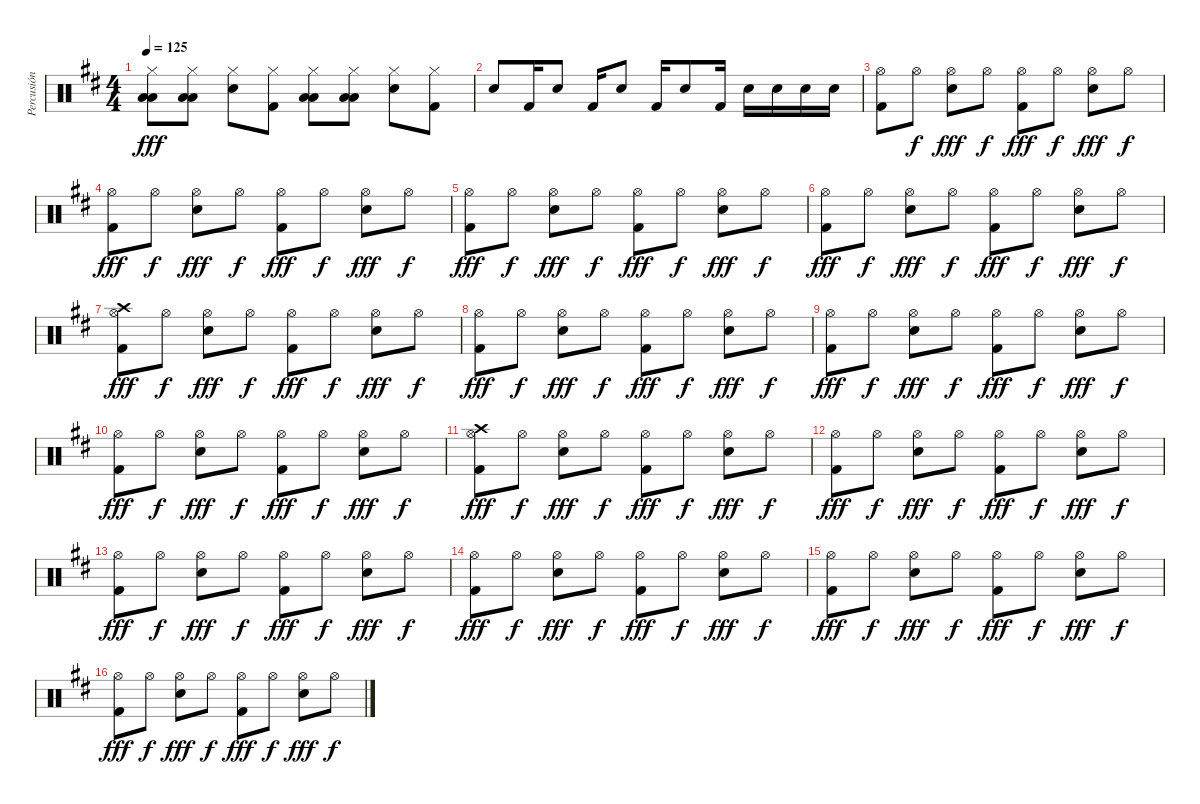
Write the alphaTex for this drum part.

\track ("Percusión" "Percusión") {instrument percussion}
\staff {score}
\articulation defaults
\ts (4 4)
\tempo 125
\clef neutral
\ks d
("Hi-Hat (closed)" "Low Tom (hit)" "Low Tom (hit)").8{dy fff} ("Hi-Hat (closed)" "Low Tom (hit)" "Low Tom (hit)").8 ("Hi-Hat (closed)" "Electric Snare (hit)").8 ("Hi-Hat (closed)" "Kick (hit) 2").8 ("Hi-Hat (closed)" "Low Tom (hit)" "Low Tom (hit)").8 ("Hi-Hat (closed)" "Low Tom (hit)" "Low Tom (hit)").8 ("Hi-Hat (closed)" "Electric Snare (hit)").8 ("Hi-Hat (closed)" "Kick (hit) 2").8 |
"Electric Snare (hit)".8 "Kick (hit) 2".16 "Electric Snare (hit)".8 "Kick (hit) 2".16 "Electric Snare (hit)".8 "Kick (hit) 2".16 "Electric Snare (hit)".8 "Kick (hit) 2".16 "Electric Snare (hit)".16 "Electric Snare (hit)".16 "Electric Snare (hit)".16 "Electric Snare (hit)".16 |
("Hi-Hat (open)" "Kick (hit) 2").8 "Hi-Hat (open)".8{dy f} ("Hi-Hat (open)" "Electric Snare (hit)").8{dy fff} "Hi-Hat (open)".8{dy f} ("Hi-Hat (open)" "Kick (hit) 2").8{dy fff} "Hi-Hat (open)".8{dy f} ("Hi-Hat (open)" "Electric Snare (hit)").8{dy fff} "Hi-Hat (open)".8{dy f} |
("Hi-Hat (open)" "Kick (hit) 2").8{dy fff} "Hi-Hat (open)".8{dy f} ("Hi-Hat (open)" "Electric Snare (hit)").8{dy fff} "Hi-Hat (open)".8{dy f} ("Hi-Hat (open)" "Kick (hit) 2").8{dy fff} "Hi-Hat (open)".8{dy f} ("Hi-Hat (open)" "Electric Snare (hit)").8{dy fff} "Hi-Hat (open)".8{dy f} |
("Hi-Hat (open)" "Kick (hit) 2").8{dy fff} "Hi-Hat (open)".8{dy f} ("Hi-Hat (open)" "Electric Snare (hit)").8{dy fff} "Hi-Hat (open)".8{dy f} ("Hi-Hat (open)" "Kick (hit) 2").8{dy fff} "Hi-Hat (open)".8{dy f} ("Hi-Hat (open)" "Electric Snare (hit)").8{dy fff} "Hi-Hat (open)".8{dy f} |
("Hi-Hat (open)" "Kick (hit) 2").8{dy fff} "Hi-Hat (open)".8{dy f} ("Hi-Hat (open)" "Electric Snare (hit)").8{dy fff} "Hi-Hat (open)".8{dy f} ("Hi-Hat (open)" "Kick (hit) 2").8{dy fff} "Hi-Hat (open)".8{dy f} ("Hi-Hat (open)" "Electric Snare (hit)").8{dy fff} "Hi-Hat (open)".8{dy f} |
("Crash high (hit)" "Hi-Hat (open)" "Kick (hit) 2").8{dy fff} "Hi-Hat (open)".8{dy f} ("Hi-Hat (open)" "Electric Snare (hit)").8{dy fff} "Hi-Hat (open)".8{dy f} ("Hi-Hat (open)" "Kick (hit) 2").8{dy fff} "Hi-Hat (open)".8{dy f} ("Hi-Hat (open)" "Electric Snare (hit)").8{dy fff} "Hi-Hat (open)".8{dy f} |
("Hi-Hat (open)" "Kick (hit) 2").8{dy fff} "Hi-Hat (open)".8{dy f} ("Hi-Hat (open)" "Electric Snare (hit)").8{dy fff} "Hi-Hat (open)".8{dy f} ("Hi-Hat (open)" "Kick (hit) 2").8{dy fff} "Hi-Hat (open)".8{dy f} ("Hi-Hat (open)" "Electric Snare (hit)").8{dy fff} "Hi-Hat (open)".8{dy f} |
("Hi-Hat (open)" "Kick (hit) 2").8{dy fff} "Hi-Hat (open)".8{dy f} ("Hi-Hat (open)" "Electric Snare (hit)").8{dy fff} "Hi-Hat (open)".8{dy f} ("Hi-Hat (open)" "Kick (hit) 2").8{dy fff} "Hi-Hat (open)".8{dy f} ("Hi-Hat (open)" "Electric Snare (hit)").8{dy fff} "Hi-Hat (open)".8{dy f} |
("Hi-Hat (open)" "Kick (hit) 2").8{dy fff} "Hi-Hat (open)".8{dy f} ("Hi-Hat (open)" "Electric Snare (hit)").8{dy fff} "Hi-Hat (open)".8{dy f} ("Hi-Hat (open)" "Kick (hit) 2").8{dy fff} "Hi-Hat (open)".8{dy f} ("Hi-Hat (open)" "Electric Snare (hit)").8{dy fff} "Hi-Hat (open)".8{dy f} |
("Crash high (hit)" "Hi-Hat (open)" "Kick (hit) 2").8{dy fff} "Hi-Hat (open)".8{dy f} ("Hi-Hat (open)" "Electric Snare (hit)").8{dy fff} "Hi-Hat (open)".8{dy f} ("Hi-Hat (open)" "Kick (hit) 2").8{dy fff} "Hi-Hat (open)".8{dy f} ("Hi-Hat (open)" "Electric Snare (hit)").8{dy fff} "Hi-Hat (open)".8{dy f} |
("Hi-Hat (open)" "Kick (hit) 2").8{dy fff} "Hi-Hat (open)".8{dy f} ("Hi-Hat (open)" "Electric Snare (hit)").8{dy fff} "Hi-Hat (open)".8{dy f} ("Hi-Hat (open)" "Kick (hit) 2").8{dy fff} "Hi-Hat (open)".8{dy f} ("Hi-Hat (open)" "Electric Snare (hit)").8{dy fff} "Hi-Hat (open)".8{dy f} |
("Hi-Hat (open)" "Kick (hit) 2").8{dy fff} "Hi-Hat (open)".8{dy f} ("Hi-Hat (open)" "Electric Snare (hit)").8{dy fff} "Hi-Hat (open)".8{dy f} ("Hi-Hat (open)" "Kick (hit) 2").8{dy fff} "Hi-Hat (open)".8{dy f} ("Hi-Hat (open)" "Electric Snare (hit)").8{dy fff} "Hi-Hat (open)".8{dy f} |
("Hi-Hat (open)" "Kick (hit) 2").8{dy fff} "Hi-Hat (open)".8{dy f} ("Hi-Hat (open)" "Electric Snare (hit)").8{dy fff} "Hi-Hat (open)".8{dy f} ("Hi-Hat (open)" "Kick (hit) 2").8{dy fff} "Hi-Hat (open)".8{dy f} ("Hi-Hat (open)" "Electric Snare (hit)").8{dy fff} "Hi-Hat (open)".8{dy f} |
("Hi-Hat (open)" "Kick (hit) 2").8{dy fff} "Hi-Hat (open)".8{dy f} ("Hi-Hat (open)" "Electric Snare (hit)").8{dy fff} "Hi-Hat (open)".8{dy f} ("Hi-Hat (open)" "Kick (hit) 2").8{dy fff} "Hi-Hat (open)".8{dy f} ("Hi-Hat (open)" "Electric Snare (hit)").8{dy fff} "Hi-Hat (open)".8{dy f} |
("Hi-Hat (open)" "Kick (hit) 2").8{dy fff} "Hi-Hat (open)".8{dy f} ("Hi-Hat (open)" "Electric Snare (hit)").8{dy fff} "Hi-Hat (open)".8{dy f} ("Hi-Hat (open)" "Kick (hit) 2").8{dy fff} "Hi-Hat (open)".8{dy f} ("Hi-Hat (open)" "Electric Snare (hit)").8{dy fff} "Hi-Hat (open)".8{dy f}
